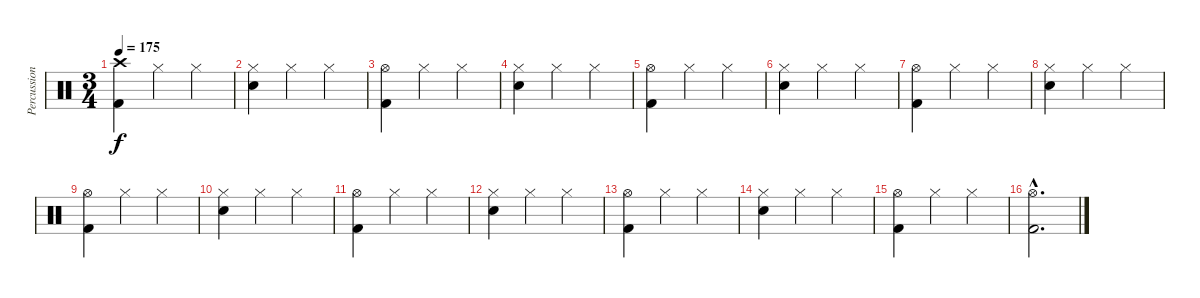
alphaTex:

\track ("Percussion" "Percussion") {instrument percussion}
\staff {score}
\articulation defaults
\ts (3 4)
\tempo 175
\clef neutral
\ks c
("Crash high (hit)" "Kick (hit) 2").4{dy f} "Hi-Hat (closed)".4 "Hi-Hat (closed)".4 |
("Electric Snare (hit)" "Hi-Hat (closed)").4 "Hi-Hat (closed)".4 "Hi-Hat (closed)".4 |
("Hi-Hat (open)" "Kick (hit) 2").4 "Hi-Hat (closed)".4 "Hi-Hat (closed)".4 |
("Electric Snare (hit)" "Hi-Hat (closed)").4 "Hi-Hat (closed)".4 "Hi-Hat (closed)".4 |
("Hi-Hat (open)" "Kick (hit) 2").4 "Hi-Hat (closed)".4 "Hi-Hat (closed)".4 |
("Electric Snare (hit)" "Hi-Hat (closed)").4 "Hi-Hat (closed)".4 "Hi-Hat (closed)".4 |
("Hi-Hat (open)" "Kick (hit) 2").4 "Hi-Hat (closed)".4 "Hi-Hat (closed)".4 |
("Electric Snare (hit)" "Hi-Hat (closed)").4 "Hi-Hat (closed)".4 "Hi-Hat (closed)".4 |
("Hi-Hat (open)" "Kick (hit) 2").4 "Hi-Hat (closed)".4 "Hi-Hat (closed)".4 |
("Electric Snare (hit)" "Hi-Hat (closed)").4 "Hi-Hat (closed)".4 "Hi-Hat (closed)".4 |
("Hi-Hat (open)" "Kick (hit) 2").4 "Hi-Hat (closed)".4 "Hi-Hat (closed)".4 |
("Electric Snare (hit)" "Hi-Hat (closed)").4 "Hi-Hat (closed)".4 "Hi-Hat (closed)".4 |
("Hi-Hat (open)" "Kick (hit) 2").4 "Hi-Hat (closed)".4 "Hi-Hat (closed)".4 |
("Electric Snare (hit)" "Hi-Hat (closed)").4 "Hi-Hat (closed)".4 "Hi-Hat (closed)".4 |
("Hi-Hat (open)" "Kick (hit) 2").4 "Hi-Hat (closed)".4 "Hi-Hat (closed)".4 |
("Hi-Hat (open)"{hac} "Kick (hit) 2"{hac}).2{d}
